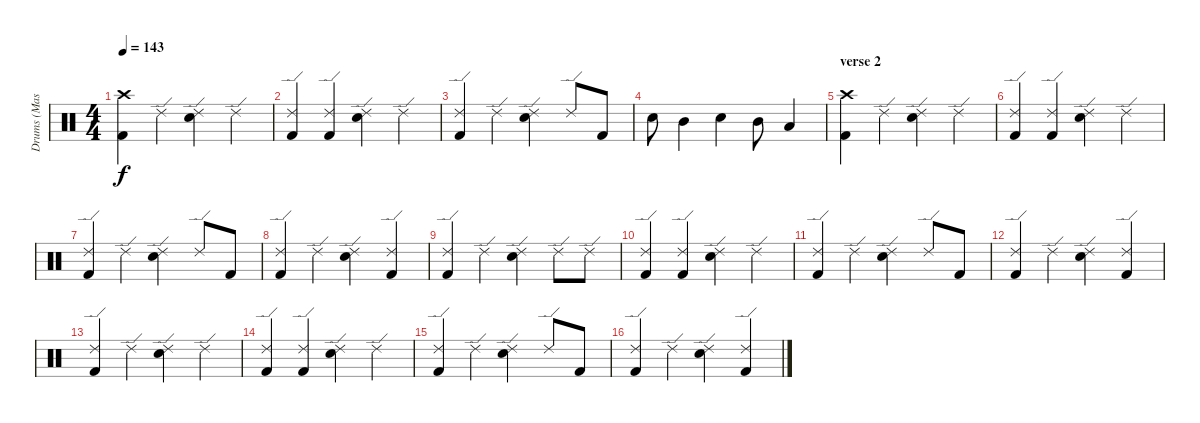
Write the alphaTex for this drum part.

\track ("Drums (Mason)" "Drums (Mas") {instrument percussion}
\staff {score}
\articulation defaults
\ts (4 4)
\tempo 143
\clef neutral
\ks c
("Crash high (hit)" "Kick (hit) 2").4{dy f} "Ride (edge) 2".4 ("Ride (edge) 2" "Electric Snare (hit)").4 "Ride (edge) 2".4 |
("Ride (edge) 2" "Kick (hit) 2").4 ("Ride (edge) 2" "Kick (hit) 2").4 ("Ride (edge) 2" "Electric Snare (hit)").4 "Ride (edge) 2".4 |
("Ride (edge) 2" "Kick (hit) 2").4 "Ride (edge) 2".4 ("Ride (edge) 2" "Electric Snare (hit)").4 "Ride (edge) 2".8 "Kick (hit) 2".8 |
"Electric Snare (hit)".8 "Mid Tom (hit)".4 "Electric Snare (hit)".4 "Mid Tom (hit)".8 "Low Tom (hit)".4 |
\section ("" "verse 2")
("Crash high (hit)" "Kick (hit) 2").4 "Ride (edge) 2".4 ("Ride (edge) 2" "Electric Snare (hit)").4 "Ride (edge) 2".4 |
("Ride (edge) 2" "Kick (hit) 2").4 ("Ride (edge) 2" "Kick (hit) 2").4 ("Ride (edge) 2" "Electric Snare (hit)").4 "Ride (edge) 2".4 |
("Ride (edge) 2" "Kick (hit) 2").4 "Ride (edge) 2".4 ("Ride (edge) 2" "Electric Snare (hit)").4 "Ride (edge) 2".8 "Kick (hit) 2".8 |
("Ride (edge) 2" "Kick (hit) 2").4 "Ride (edge) 2".4 ("Ride (edge) 2" "Electric Snare (hit)").4 ("Ride (edge) 2" "Kick (hit) 2").4 |
("Ride (edge) 2" "Kick (hit) 2").4 "Ride (edge) 2".4 ("Ride (edge) 2" "Electric Snare (hit)").4 "Ride (edge) 2".8 "Ride (edge) 2".8 |
("Ride (edge) 2" "Kick (hit) 2").4 ("Ride (edge) 2" "Kick (hit) 2").4 ("Ride (edge) 2" "Electric Snare (hit)").4 "Ride (edge) 2".4 |
("Ride (edge) 2" "Kick (hit) 2").4 "Ride (edge) 2".4 ("Ride (edge) 2" "Electric Snare (hit)").4 "Ride (edge) 2".8 "Kick (hit) 2".8 |
("Ride (edge) 2" "Kick (hit) 2").4 "Ride (edge) 2".4 ("Ride (edge) 2" "Electric Snare (hit)").4 ("Ride (edge) 2" "Kick (hit) 2").4 |
("Ride (edge) 2" "Kick (hit) 2").4 "Ride (edge) 2".4 ("Ride (edge) 2" "Electric Snare (hit)").4 "Ride (edge) 2".4 |
("Ride (edge) 2" "Kick (hit) 2").4 ("Ride (edge) 2" "Kick (hit) 2").4 ("Ride (edge) 2" "Electric Snare (hit)").4 "Ride (edge) 2".4 |
("Ride (edge) 2" "Kick (hit) 2").4 "Ride (edge) 2".4 ("Ride (edge) 2" "Electric Snare (hit)").4 "Ride (edge) 2".8 "Kick (hit) 2".8 |
("Ride (edge) 2" "Kick (hit) 2").4 "Ride (edge) 2".4 ("Ride (edge) 2" "Electric Snare (hit)").4 ("Ride (edge) 2" "Kick (hit) 2").4
